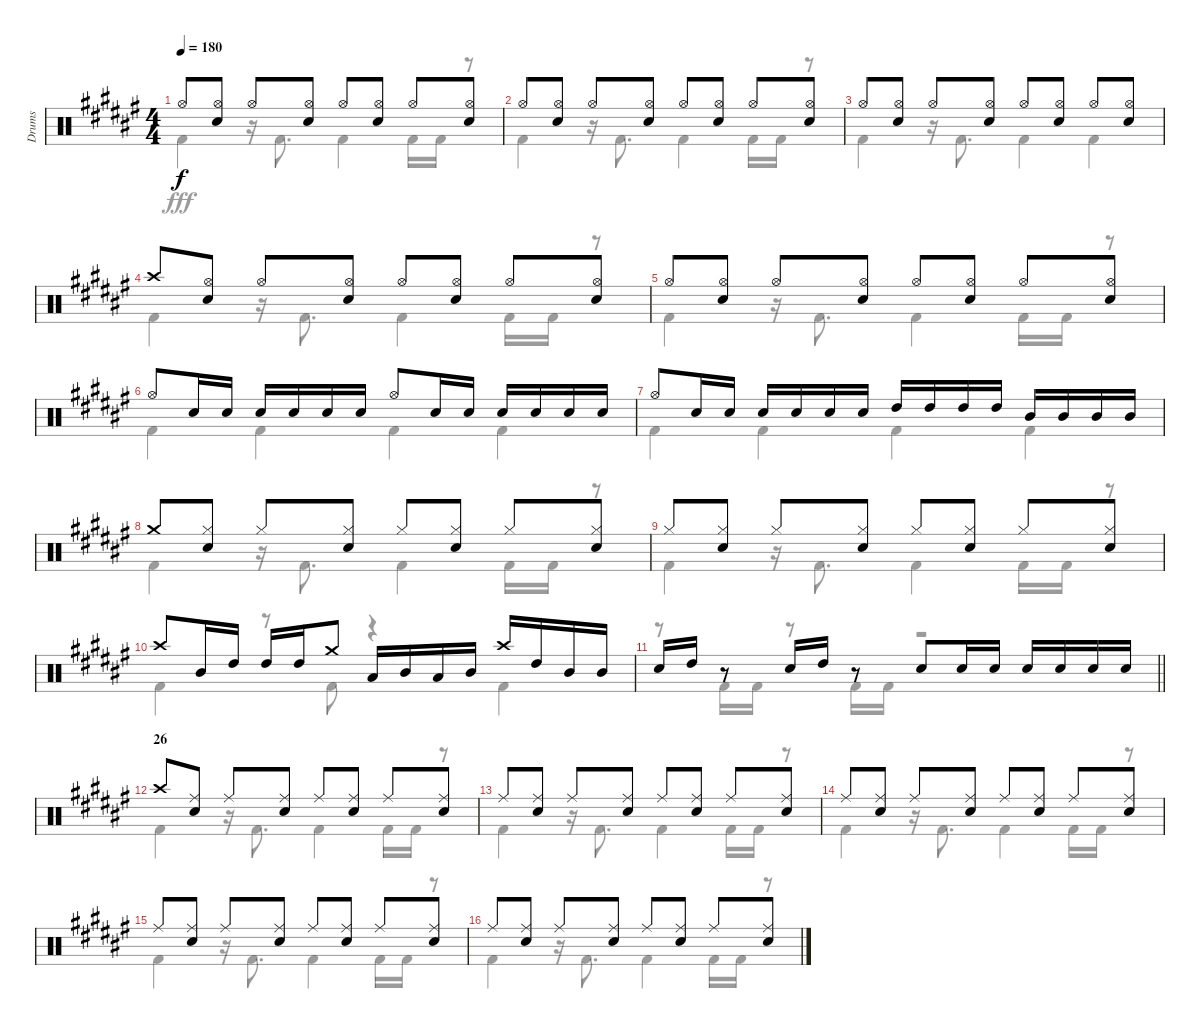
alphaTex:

\track ("Drums" "Drums") {instrument percussion}
\staff {score}
\articulation defaults
\voice
\ts (4 4)
\tempo 180
\clef neutral
\ks f# "Hi-Hat (open)".8{dy f}
("Hi-Hat (open)" "Snare (hit) 2").8 "Hi-Hat (open)".8 ("Hi-Hat (open)" "Snare (hit) 2").8 "Hi-Hat (open)".8 ("Hi-Hat (open)" "Snare (hit) 2").8 "Hi-Hat (open)".8 ("Hi-Hat (open)" "Snare (hit) 2").8 |
"Hi-Hat (open)".8 ("Hi-Hat (open)" "Snare (hit) 2").8 "Hi-Hat (open)".8 ("Hi-Hat (open)" "Snare (hit) 2").8 "Hi-Hat (open)".8 ("Hi-Hat (open)" "Snare (hit) 2").8 "Hi-Hat (open)".8 ("Hi-Hat (open)" "Snare (hit) 2").8 |
"Hi-Hat (open)".8 ("Hi-Hat (open)" "Snare (hit) 2").8 "Hi-Hat (open)".8 ("Hi-Hat (open)" "Snare (hit) 2").8 "Hi-Hat (open)".8 ("Hi-Hat (open)" "Snare (hit) 2").8 "Hi-Hat (open)".8 ("Hi-Hat (open)" "Snare (hit) 2").8 |
"Crash high (hit)".8 ("Hi-Hat (open)" "Snare (hit) 2").8 "Hi-Hat (open)".8 ("Hi-Hat (open)" "Snare (hit) 2").8 "Hi-Hat (open)".8 ("Hi-Hat (open)" "Snare (hit) 2").8 "Hi-Hat (open)".8 ("Hi-Hat (open)" "Snare (hit) 2").8 |
"Hi-Hat (open)".8 ("Hi-Hat (open)" "Snare (hit) 2").8 "Hi-Hat (open)".8 ("Hi-Hat (open)" "Snare (hit) 2").8 "Hi-Hat (open)".8 ("Hi-Hat (open)" "Snare (hit) 2").8 "Hi-Hat (open)".8 ("Hi-Hat (open)" "Snare (hit) 2").8 |
"Hi-Hat (open)".8 "Snare (hit) 2".16 "Snare (hit) 2".16 "Snare (hit) 2".16 "Snare (hit) 2".16 "Snare (hit) 2".16 "Snare (hit) 2".16 "Hi-Hat (open)".8 "Snare (hit) 2".16 "Snare (hit) 2".16 "Snare (hit) 2".16 "Snare (hit) 2".16 "Snare (hit) 2".16 "Snare (hit) 2".16 |
"Hi-Hat (open)".8 "Snare (hit) 2".16 "Snare (hit) 2".16 "Snare (hit) 2".16 "Snare (hit) 2".16 "Snare (hit) 2".16 "Snare (hit) 2".16 "High Tom (hit)".16 "High Tom (hit)".16 "High Tom (hit)".16 "High Tom (hit)".16 "Mid Tom (hit)".16 "Mid Tom (hit)".16 "Mid Tom (hit)".16 "Mid Tom (hit)".16 |
"Crash medium (hit)".8 ("Hi-Hat (closed)" "Snare (hit) 2").8 "Hi-Hat (closed)".8 ("Hi-Hat (closed)" "Snare (hit) 2").8 "Hi-Hat (closed)".8 ("Hi-Hat (closed)" "Snare (hit) 2").8 "Hi-Hat (closed)".8 ("Hi-Hat (closed)" "Snare (hit) 2").8 |
"Hi-Hat (closed)".8 ("Hi-Hat (closed)" "Snare (hit) 2").8 "Hi-Hat (closed)".8 ("Hi-Hat (closed)" "Snare (hit) 2").8 "Hi-Hat (closed)".8 ("Hi-Hat (closed)" "Snare (hit) 2").8 "Hi-Hat (closed)".8 ("Hi-Hat (closed)" "Snare (hit) 2").8 |
"Crash high (hit)".8 "Mid Tom (hit)".16 "High Tom (hit)".16 "High Tom (hit)".16 "High Tom (hit)".16 "Crash medium (hit)".8 "Low Tom (hit)".16 "Mid Tom (hit)".16 "Low Tom (hit)".16 "Mid Tom (hit)".16 "Crash high (hit)".16 "High Tom (hit)".16 "Mid Tom (hit)".16 "Mid Tom (hit)".16 |
\barLineRight lightlight "Snare (hit) 2".16 "High Tom (hit)".16
r.8 "Snare (hit) 2".16 "High Tom (hit)".16 r.8 "Snare (hit) 2".8 "Snare (hit) 2".16 "Snare (hit) 2".16 "Snare (hit) 2".16 "Snare (hit) 2".16 "Snare (hit) 2".16 "Snare (hit) 2".16 |
\section ("" "26")
"Crash high (hit)".8 ("Ride (middle)" "Snare (hit) 2").8 "Ride (middle)".8 ("Ride (middle)" "Snare (hit) 2").8 "Ride (middle)".8 ("Ride (middle)" "Snare (hit) 2").8 "Ride (middle)".8 ("Ride (middle)" "Snare (hit) 2").8 |
"Ride (middle)".8 ("Ride (middle)" "Snare (hit) 2").8 "Ride (middle)".8 ("Ride (middle)" "Snare (hit) 2").8 "Ride (middle)".8 ("Ride (middle)" "Snare (hit) 2").8 "Ride (middle)".8 ("Ride (middle)" "Snare (hit) 2").8 |
"Ride (middle)".8 ("Ride (middle)" "Snare (hit) 2").8 "Ride (middle)".8 ("Ride (middle)" "Snare (hit) 2").8 "Ride (middle)".8 ("Ride (middle)" "Snare (hit) 2").8 "Ride (middle)".8 ("Ride (middle)" "Snare (hit) 2").8 |
"Ride (middle)".8 ("Ride (middle)" "Snare (hit) 2").8 "Ride (middle)".8 ("Ride (middle)" "Snare (hit) 2").8 "Ride (middle)".8 ("Ride (middle)" "Snare (hit) 2").8 "Ride (middle)".8 ("Ride (middle)" "Snare (hit) 2").8 |
"Ride (middle)".8 ("Ride (middle)" "Snare (hit) 2").8 "Ride (middle)".8 ("Ride (middle)" "Snare (hit) 2").8 "Ride (middle)".8 ("Ride (middle)" "Snare (hit) 2").8 "Ride (middle)".8 ("Ride (middle)" "Snare (hit) 2").8
\voice
\clef neutral
\ottava regular
\simile none
\ks f# "Kick (hit) 2".4{dy fff}
r.16 "Kick (hit) 2".8{d} "Kick (hit) 2".4 "Kick (hit) 2".16 "Kick (hit) 2".16 r.8 |
"Kick (hit) 2".4 r.16 "Kick (hit) 2".8{d} "Kick (hit) 2".4 "Kick (hit) 2".16 "Kick (hit) 2".16 r.8 |
"Kick (hit) 2".4 r.16 "Kick (hit) 2".8{d} "Kick (hit) 2".4 "Kick (hit) 2".4 |
"Kick (hit) 2".4 r.16 "Kick (hit) 2".8{d} "Kick (hit) 2".4 "Kick (hit) 2".16 "Kick (hit) 2".16 r.8 |
"Kick (hit) 2".4 r.16 "Kick (hit) 2".8{d} "Kick (hit) 2".4 "Kick (hit) 2".16 "Kick (hit) 2".16 r.8 |
"Kick (hit) 2".4 "Kick (hit) 2".4 "Kick (hit) 2".4 "Kick (hit) 2".4 |
"Kick (hit) 2".4 "Kick (hit) 2".4 "Kick (hit) 2".4 "Kick (hit) 2".4 |
"Kick (hit) 2".4 r.16 "Kick (hit) 2".8{d} "Kick (hit) 2".4 "Kick (hit) 2".16 "Kick (hit) 2".16 r.8 |
"Kick (hit) 2".4 r.16 "Kick (hit) 2".8{d} "Kick (hit) 2".4 "Kick (hit) 2".16 "Kick (hit) 2".16 r.8 |
"Kick (hit) 2".4 r.8 "Kick (hit) 2".8 r.4 "Kick (hit) 2".4 |
\barLineRight lightlight
r.8 "Kick (hit) 2".16 "Kick (hit) 2".16 r.8 "Kick (hit) 2".16 "Kick (hit) 2".16 r.2 |
"Kick (hit) 2".4 r.16 "Kick (hit) 2".8{d} "Kick (hit) 2".4 "Kick (hit) 2".16 "Kick (hit) 2".16 r.8 |
"Kick (hit) 2".4 r.16 "Kick (hit) 2".8{d} "Kick (hit) 2".4 "Kick (hit) 2".16 "Kick (hit) 2".16 r.8 |
"Kick (hit) 2".4 r.16 "Kick (hit) 2".8{d} "Kick (hit) 2".4 "Kick (hit) 2".16 "Kick (hit) 2".16 r.8 |
"Kick (hit) 2".4 r.16 "Kick (hit) 2".8{d} "Kick (hit) 2".4 "Kick (hit) 2".16 "Kick (hit) 2".16 r.8 |
"Kick (hit) 2".4 r.16 "Kick (hit) 2".8{d} "Kick (hit) 2".4 "Kick (hit) 2".16 "Kick (hit) 2".16 r.8
